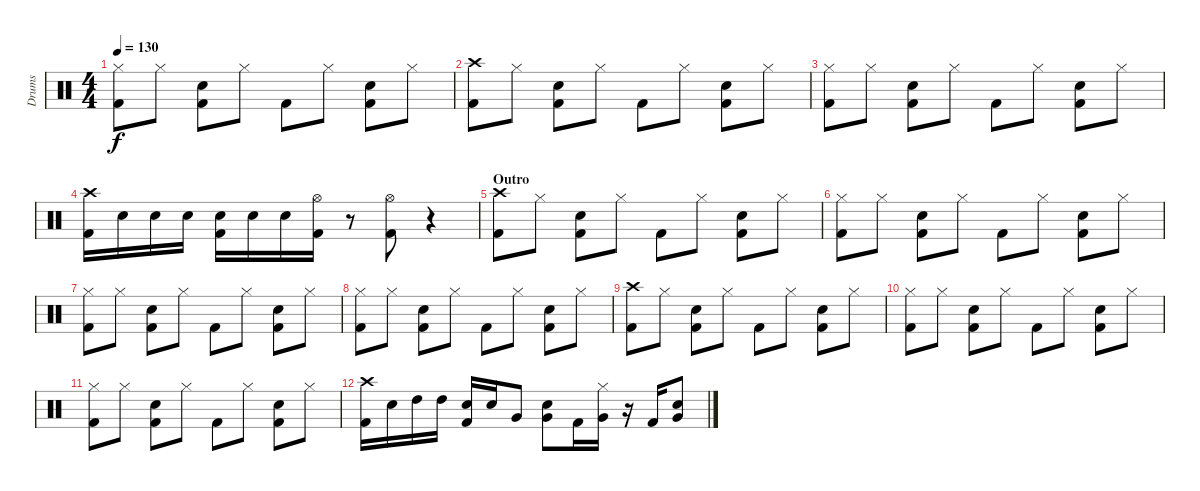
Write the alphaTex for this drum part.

\track ("Drums" "Drums") {instrument percussion}
\staff {score}
\articulation defaults
\ts (4 4)
\tempo 130
\clef neutral
\ks c
("Hi-Hat (closed)" "Kick (hit) 2").8{dy f} "Hi-Hat (closed)".8 ("Snare (hit) 2" "Kick (hit) 2").8 "Hi-Hat (closed)".8 "Kick (hit) 2".8 "Hi-Hat (closed)".8 ("Snare (hit) 2" "Kick (hit) 2").8 "Hi-Hat (closed)".8 |
("Crash high (hit)" "Kick (hit) 2").8 "Hi-Hat (closed)".8 ("Snare (hit) 2" "Kick (hit) 2").8 "Hi-Hat (closed)".8 "Kick (hit) 2".8 "Hi-Hat (closed)".8 ("Snare (hit) 2" "Kick (hit) 2").8 "Hi-Hat (closed)".8 |
("Hi-Hat (closed)" "Kick (hit) 2").8 "Hi-Hat (closed)".8 ("Snare (hit) 2" "Kick (hit) 2").8 "Hi-Hat (closed)".8 "Kick (hit) 2".8 "Hi-Hat (closed)".8 ("Snare (hit) 2" "Kick (hit) 2").8 "Hi-Hat (closed)".8 |
("Crash high (hit)" "Kick (hit) 2").16 "Snare (hit) 2".16 "Snare (hit) 2".16 "Snare (hit) 2".16 ("Snare (hit) 2" "Kick (hit) 2").16 "Snare (hit) 2".16 "Snare (hit) 2".16 ("Hi-Hat (open)" "Kick (hit) 2").16 r.8 ("Hi-Hat (open)" "Kick (hit) 2").8 r.4 |
\section ("" "Outro")
("Crash high (hit)" "Kick (hit) 2").8 "Hi-Hat (closed)".8 ("Snare (hit) 2" "Kick (hit) 2").8 "Hi-Hat (closed)".8 "Kick (hit) 2".8 "Hi-Hat (closed)".8 ("Snare (hit) 2" "Kick (hit) 2").8 "Hi-Hat (closed)".8 |
("Hi-Hat (closed)" "Kick (hit) 2").8 "Hi-Hat (closed)".8 ("Snare (hit) 2" "Kick (hit) 2").8 "Hi-Hat (closed)".8 "Kick (hit) 2".8 "Hi-Hat (closed)".8 ("Snare (hit) 2" "Kick (hit) 2").8 "Hi-Hat (closed)".8 |
("Hi-Hat (closed)" "Kick (hit) 2").8 "Hi-Hat (closed)".8 ("Snare (hit) 2" "Kick (hit) 2").8 "Hi-Hat (closed)".8 "Kick (hit) 2".8 "Hi-Hat (closed)".8 ("Snare (hit) 2" "Kick (hit) 2").8 "Hi-Hat (closed)".8 |
("Hi-Hat (closed)" "Kick (hit) 2").8 "Hi-Hat (closed)".8 ("Snare (hit) 2" "Kick (hit) 2").8 "Hi-Hat (closed)".8 "Kick (hit) 2".8 "Hi-Hat (closed)".8 ("Snare (hit) 2" "Kick (hit) 2").8 "Hi-Hat (closed)".8 |
("Crash high (hit)" "Kick (hit) 2").8 "Hi-Hat (closed)".8 ("Snare (hit) 2" "Kick (hit) 2").8 "Hi-Hat (closed)".8 "Kick (hit) 2".8 "Hi-Hat (closed)".8 ("Snare (hit) 2" "Kick (hit) 2").8 "Hi-Hat (closed)".8 |
("Hi-Hat (closed)" "Kick (hit) 2").8 "Hi-Hat (closed)".8 ("Snare (hit) 2" "Kick (hit) 2").8 "Hi-Hat (closed)".8 "Kick (hit) 2".8 "Hi-Hat (closed)".8 ("Snare (hit) 2" "Kick (hit) 2").8 "Hi-Hat (closed)".8 |
("Hi-Hat (closed)" "Kick (hit) 2").8 "Hi-Hat (closed)".8 ("Snare (hit) 2" "Kick (hit) 2").8 "Hi-Hat (closed)".8 "Kick (hit) 2".8 "Hi-Hat (closed)".8 ("Snare (hit) 2" "Kick (hit) 2").8 "Hi-Hat (closed)".8 |
("Crash high (hit)" "Kick (hit) 2").16 "Snare (hit) 2".16 "High Tom (hit)".16 "High Tom (hit)".16 ("Snare (hit) 2" "Kick (hit) 2").16 "Snare (hit) 2".16 "Very Low Tom (hit)".8 ("Snare (hit) 2" "Very Low Tom (hit)").8 "Kick (hit) 2".16 ("Hi-Hat (closed)" "Very Low Tom (hit)").16 r.16 "Kick (hit) 2".16 ("Snare (hit) 2" "Very Low Tom (hit)").8
